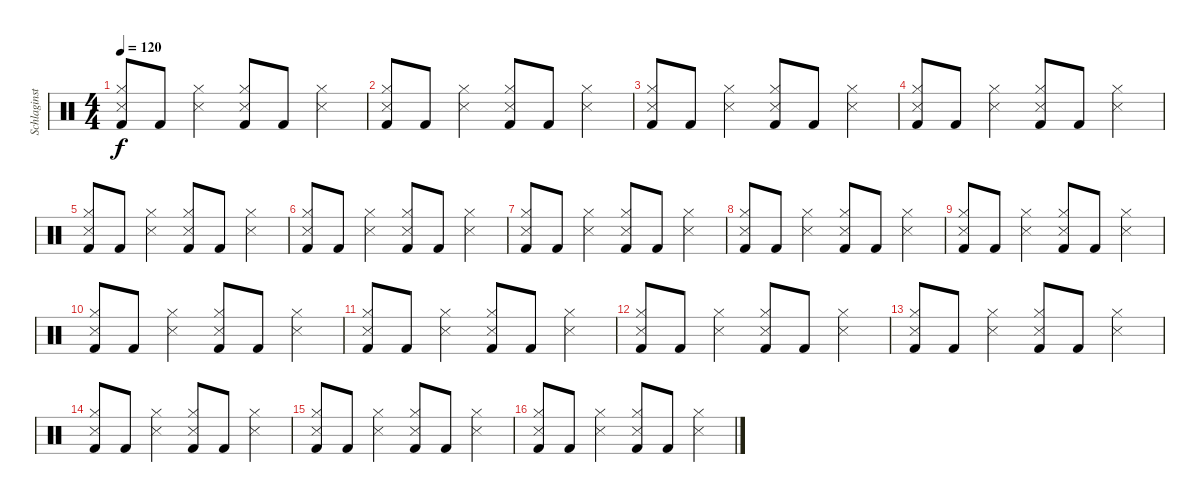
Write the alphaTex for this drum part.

\track ("Schlaginstrumente - Auswahl" "Schlaginst") {instrument percussion}
\staff {score}
\articulation defaults
\ts (4 4)
\tempo 120
\clef neutral
\ks c
("Kick (hit) 2" "Hi-Hat (closed)" "Snare (side stick) 3").8{dy f} "Kick (hit) 2".8 ("Hi-Hat (closed)" "Snare (side stick) 3").4 ("Kick (hit) 2" "Hi-Hat (closed)" "Snare (side stick) 3").8 "Kick (hit) 2".8 ("Hi-Hat (closed)" "Snare (side stick) 3").4 |
("Kick (hit) 2" "Hi-Hat (closed)" "Snare (side stick) 3").8 "Kick (hit) 2".8 ("Hi-Hat (closed)" "Snare (side stick) 3").4 ("Kick (hit) 2" "Hi-Hat (closed)" "Snare (side stick) 3").8 "Kick (hit) 2".8 ("Hi-Hat (closed)" "Snare (side stick) 3").4 |
("Kick (hit) 2" "Hi-Hat (closed)" "Snare (side stick) 3").8 "Kick (hit) 2".8 ("Hi-Hat (closed)" "Snare (side stick) 3").4 ("Kick (hit) 2" "Hi-Hat (closed)" "Snare (side stick) 3").8 "Kick (hit) 2".8 ("Hi-Hat (closed)" "Snare (side stick) 3").4 |
("Kick (hit) 2" "Hi-Hat (closed)" "Snare (side stick) 3").8 "Kick (hit) 2".8 ("Hi-Hat (closed)" "Snare (side stick) 3").4 ("Kick (hit) 2" "Hi-Hat (closed)" "Snare (side stick) 3").8 "Kick (hit) 2".8 ("Hi-Hat (closed)" "Snare (side stick) 3").4 |
("Kick (hit) 2" "Hi-Hat (closed)" "Snare (side stick) 3").8 "Kick (hit) 2".8 ("Hi-Hat (closed)" "Snare (side stick) 3").4 ("Kick (hit) 2" "Hi-Hat (closed)" "Snare (side stick) 3").8 "Kick (hit) 2".8 ("Hi-Hat (closed)" "Snare (side stick) 3").4 |
("Kick (hit) 2" "Hi-Hat (closed)" "Snare (side stick) 3").8 "Kick (hit) 2".8 ("Hi-Hat (closed)" "Snare (side stick) 3").4 ("Kick (hit) 2" "Hi-Hat (closed)" "Snare (side stick) 3").8 "Kick (hit) 2".8 ("Hi-Hat (closed)" "Snare (side stick) 3").4 |
("Kick (hit) 2" "Hi-Hat (closed)" "Snare (side stick) 3").8 "Kick (hit) 2".8 ("Hi-Hat (closed)" "Snare (side stick) 3").4 ("Kick (hit) 2" "Hi-Hat (closed)" "Snare (side stick) 3").8 "Kick (hit) 2".8 ("Hi-Hat (closed)" "Snare (side stick) 3").4 |
("Kick (hit) 2" "Hi-Hat (closed)" "Snare (side stick) 3").8 "Kick (hit) 2".8 ("Hi-Hat (closed)" "Snare (side stick) 3").4 ("Kick (hit) 2" "Hi-Hat (closed)" "Snare (side stick) 3").8 "Kick (hit) 2".8 ("Hi-Hat (closed)" "Snare (side stick) 3").4 |
("Kick (hit) 2" "Hi-Hat (closed)" "Snare (side stick) 3").8 "Kick (hit) 2".8 ("Hi-Hat (closed)" "Snare (side stick) 3").4 ("Kick (hit) 2" "Hi-Hat (closed)" "Snare (side stick) 3").8 "Kick (hit) 2".8 ("Hi-Hat (closed)" "Snare (side stick) 3").4 |
("Kick (hit) 2" "Hi-Hat (closed)" "Snare (side stick) 3").8 "Kick (hit) 2".8 ("Hi-Hat (closed)" "Snare (side stick) 3").4 ("Kick (hit) 2" "Hi-Hat (closed)" "Snare (side stick) 3").8 "Kick (hit) 2".8 ("Hi-Hat (closed)" "Snare (side stick) 3").4 |
("Kick (hit) 2" "Hi-Hat (closed)" "Snare (side stick) 3").8 "Kick (hit) 2".8 ("Hi-Hat (closed)" "Snare (side stick) 3").4 ("Kick (hit) 2" "Hi-Hat (closed)" "Snare (side stick) 3").8 "Kick (hit) 2".8 ("Hi-Hat (closed)" "Snare (side stick) 3").4 |
("Kick (hit) 2" "Hi-Hat (closed)" "Snare (side stick) 3").8 "Kick (hit) 2".8 ("Hi-Hat (closed)" "Snare (side stick) 3").4 ("Kick (hit) 2" "Hi-Hat (closed)" "Snare (side stick) 3").8 "Kick (hit) 2".8 ("Hi-Hat (closed)" "Snare (side stick) 3").4 |
("Kick (hit) 2" "Hi-Hat (closed)" "Snare (side stick) 3").8 "Kick (hit) 2".8 ("Hi-Hat (closed)" "Snare (side stick) 3").4 ("Kick (hit) 2" "Hi-Hat (closed)" "Snare (side stick) 3").8 "Kick (hit) 2".8 ("Hi-Hat (closed)" "Snare (side stick) 3").4 |
("Kick (hit) 2" "Hi-Hat (closed)" "Snare (side stick) 3").8 "Kick (hit) 2".8 ("Hi-Hat (closed)" "Snare (side stick) 3").4 ("Kick (hit) 2" "Hi-Hat (closed)" "Snare (side stick) 3").8 "Kick (hit) 2".8 ("Hi-Hat (closed)" "Snare (side stick) 3").4 |
("Kick (hit) 2" "Hi-Hat (closed)" "Snare (side stick) 3").8 "Kick (hit) 2".8 ("Hi-Hat (closed)" "Snare (side stick) 3").4 ("Kick (hit) 2" "Hi-Hat (closed)" "Snare (side stick) 3").8 "Kick (hit) 2".8 ("Hi-Hat (closed)" "Snare (side stick) 3").4 |
("Kick (hit) 2" "Hi-Hat (closed)" "Snare (side stick) 3").8 "Kick (hit) 2".8 ("Hi-Hat (closed)" "Snare (side stick) 3").4 ("Kick (hit) 2" "Hi-Hat (closed)" "Snare (side stick) 3").8 "Kick (hit) 2".8 ("Hi-Hat (closed)" "Snare (side stick) 3").4
